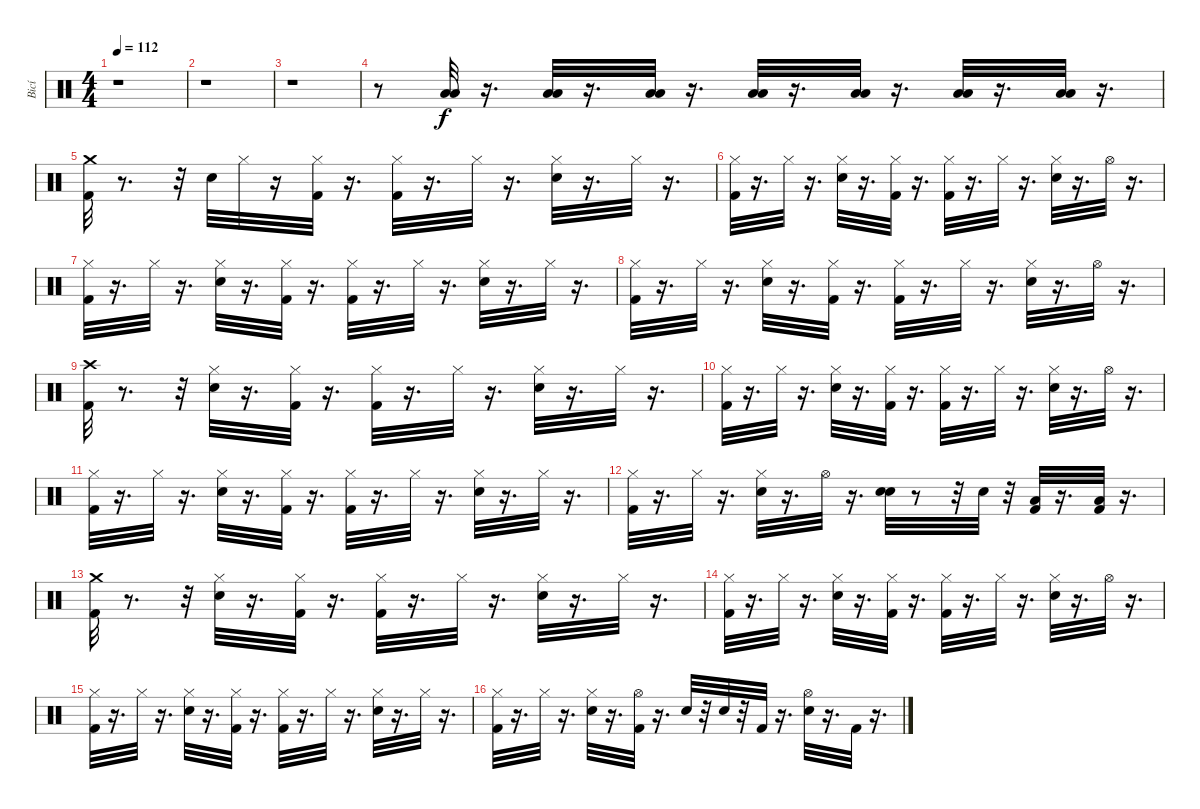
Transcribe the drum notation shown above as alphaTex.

\track ("Bicí" "Bicí") {instrument percussion}
\staff {score}
\articulation defaults
\ts (4 4)
\tempo 112
\clef neutral
\ks c
r.1{dy f} |
r.1 |
r.1 |
r.8 ("Low Tom (hit)" "Low Floor Tom (hit)").32 r.16{d} ("Low Floor Tom (hit)" "Low Tom (hit)").32 r.16{d} ("Low Floor Tom (hit)" "Low Tom (hit)").32 r.16{d} ("Low Floor Tom (hit)" "Low Tom (hit)").32 r.16{d} ("Low Tom (hit)" "Low Floor Tom (hit)").32 r.16{d} ("Low Floor Tom (hit)" "Low Tom (hit)").32 r.16{d} ("Low Floor Tom (hit)" "Low Tom (hit)").32 r.16{d} |
("Kick (hit) 2" "Crash medium (hit)").32 r.8{d} r.32 "Snare (hit) 2".32 "Hi-Hat (closed)".32 r.16 ("Kick (hit) 2" "Hi-Hat (closed)").32 r.16{d} ("Kick (hit) 2" "Hi-Hat (closed)").32 r.16{d} "Hi-Hat (closed)".32 r.16{d} ("Hi-Hat (closed)" "Snare (hit) 2").32 r.16{d} "Hi-Hat (closed)".32 r.16{d} |
("Kick (hit) 2" "Hi-Hat (closed)").32 r.16{d} "Hi-Hat (closed)".32 r.16{d} ("Hi-Hat (closed)" "Snare (hit) 2").32 r.16{d} ("Kick (hit) 2" "Hi-Hat (closed)").32 r.16{d} ("Kick (hit) 2" "Hi-Hat (closed)").32 r.16{d} "Hi-Hat (closed)".32 r.16{d} ("Snare (hit) 2" "Hi-Hat (closed)").32 r.16{d} "Hi-Hat (open)".32 r.16{d} |
("Kick (hit) 2" "Hi-Hat (closed)").32 r.16{d} "Hi-Hat (closed)".32 r.16{d} ("Hi-Hat (closed)" "Snare (hit) 2").32 r.16{d} ("Kick (hit) 2" "Hi-Hat (closed)").32 r.16{d} ("Hi-Hat (closed)" "Kick (hit) 2").32 r.16{d} "Hi-Hat (closed)".32 r.16{d} ("Hi-Hat (closed)" "Snare (hit) 2").32 r.16{d} "Hi-Hat (closed)".32 r.16{d} |
("Kick (hit) 2" "Hi-Hat (closed)").32 r.16{d} "Hi-Hat (closed)".32 r.16{d} ("Snare (hit) 2" "Hi-Hat (closed)").32 r.16{d} ("Kick (hit) 2" "Hi-Hat (closed)").32 r.16{d} ("Kick (hit) 2" "Hi-Hat (closed)").32 r.16{d} "Hi-Hat (closed)".32 r.16{d} ("Snare (hit) 2" "Hi-Hat (closed)").32 r.16{d} "Hi-Hat (open)".32 r.16{d} |
("Kick (hit) 2" "Crash high (hit)").32 r.8{d} r.32 ("Hi-Hat (closed)" "Snare (hit) 2").32 r.16{d} ("Kick (hit) 2" "Hi-Hat (closed)").32 r.16{d} ("Kick (hit) 2" "Hi-Hat (closed)").32 r.16{d} "Hi-Hat (closed)".32 r.16{d} ("Hi-Hat (closed)" "Snare (hit) 2").32 r.16{d} "Hi-Hat (closed)".32 r.16{d} |
("Kick (hit) 2" "Hi-Hat (closed)").32 r.16{d} "Hi-Hat (closed)".32 r.16{d} ("Snare (hit) 2" "Hi-Hat (closed)").32 r.16{d} ("Kick (hit) 2" "Hi-Hat (closed)").32 r.16{d} ("Kick (hit) 2" "Hi-Hat (closed)").32 r.16{d} "Hi-Hat (closed)".32 r.16{d} ("Hi-Hat (closed)" "Snare (hit) 2").32 r.16{d} "Hi-Hat (open)".32 r.16{d} |
("Kick (hit) 2" "Hi-Hat (closed)").32 r.16{d} "Hi-Hat (closed)".32 r.16{d} ("Hi-Hat (closed)" "Snare (hit) 2").32 r.16{d} ("Kick (hit) 2" "Hi-Hat (closed)").32 r.16{d} ("Kick (hit) 2" "Hi-Hat (closed)").32 r.16{d} "Hi-Hat (closed)".32 r.16{d} ("Hi-Hat (closed)" "Snare (hit) 2").32 r.16{d} "Hi-Hat (closed)".32 r.16{d} |
("Kick (hit) 2" "Hi-Hat (closed)").32 r.16{d} "Hi-Hat (closed)".32 r.16{d} ("Snare (hit) 2" "Hi-Hat (closed)").32 r.16{d} "Hi-Hat (open)".32 r.16{d} ("Snare (hit) 2" "Snare (hit) 2").32 r.8 r.32 "Snare (hit) 2".32 r.32 ("Kick (hit) 2" "Low Tom (hit)").32 r.16{d} ("Kick (hit) 2" "Low Floor Tom (hit)").32 r.16{d} |
("Kick (hit) 2" "Crash medium (hit)").32 r.8{d} r.32 ("Hi-Hat (closed)" "Snare (hit) 2").32 r.16{d} ("Kick (hit) 2" "Hi-Hat (closed)").32 r.16{d} ("Kick (hit) 2" "Hi-Hat (closed)").32 r.16{d} "Hi-Hat (closed)".32 r.16{d} ("Hi-Hat (closed)" "Snare (hit) 2").32 r.16{d} "Hi-Hat (closed)".32 r.16{d} |
("Kick (hit) 2" "Hi-Hat (closed)").32 r.16{d} "Hi-Hat (closed)".32 r.16{d} ("Snare (hit) 2" "Hi-Hat (closed)").32 r.16{d} ("Kick (hit) 2" "Hi-Hat (closed)").32 r.16{d} ("Kick (hit) 2" "Hi-Hat (closed)").32 r.16{d} "Hi-Hat (closed)".32 r.16{d} ("Hi-Hat (closed)" "Snare (hit) 2").32 r.16{d} "Hi-Hat (open)".32 r.16{d} |
("Kick (hit) 2" "Hi-Hat (closed)").32 r.16{d} "Hi-Hat (closed)".32 r.16{d} ("Snare (hit) 2" "Hi-Hat (closed)").32 r.16{d} ("Kick (hit) 2" "Hi-Hat (closed)").32 r.16{d} ("Kick (hit) 2" "Hi-Hat (closed)").32 r.16{d} "Hi-Hat (closed)".32 r.16{d} ("Hi-Hat (closed)" "Snare (hit) 2").32 r.16{d} "Hi-Hat (closed)".32 r.16{d} |
("Kick (hit) 2" "Hi-Hat (closed)").32 r.16{d} "Hi-Hat (closed)".32 r.16{d} ("Snare (hit) 2" "Hi-Hat (closed)").32 r.16{d} ("Kick (hit) 2" "Hi-Hat (open)").32 r.16{d} "Snare (hit) 2".32 r.32 "Snare (hit) 2".32 r.32 "Kick (hit) 2".32 r.16{d} ("Hi-Hat (open)" "Snare (hit) 2").32 r.16{d} "Kick (hit) 2".32 r.16{d}
